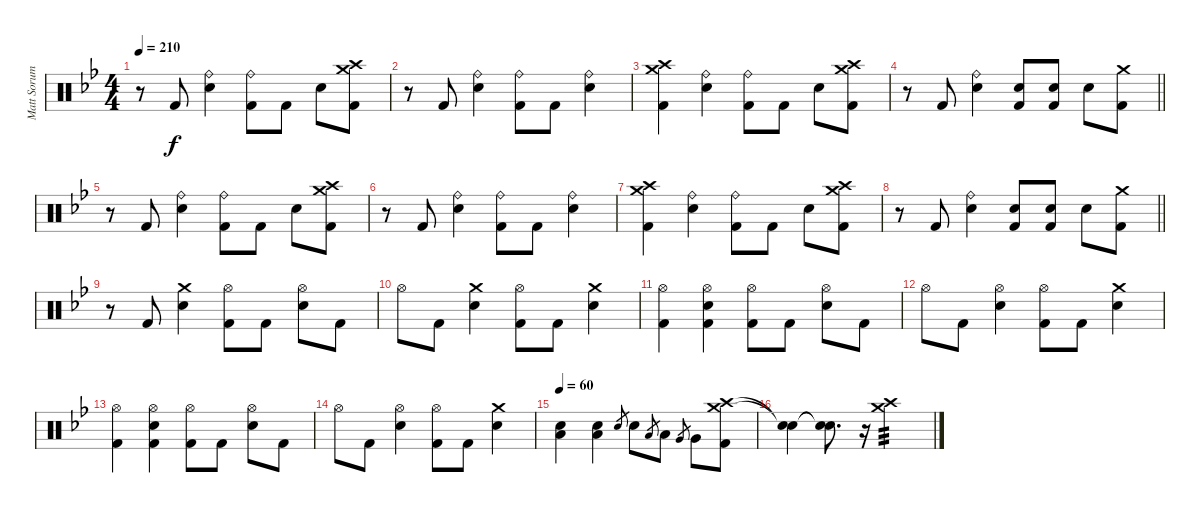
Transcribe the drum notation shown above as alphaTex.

\track ("Matt Sorum - Drums" "Matt Sorum") {instrument percussion}
\staff {score}
\articulation defaults
\ts (4 4)
\tempo 210
\clef neutral
\ks bb
r.8{dy f} "Kick (hit) 2".8 ("Ride (bell)" "Snare (hit) 2").4 ("Ride (bell)" "Kick (hit) 2").8 "Kick (hit) 2".8 "Snare (hit) 2".8 ("Crash medium (hit)" "Crash high (hit)" "Kick (hit) 2").8 |
r.8 "Kick (hit) 2".8 ("Ride (bell)" "Snare (hit) 2").4 ("Ride (bell)" "Kick (hit) 2").8 "Kick (hit) 2".8 ("Ride (bell)" "Snare (hit) 2").4 |
("Crash medium (hit)" "Crash high (hit)" "Kick (hit) 2").4 ("Ride (bell)" "Snare (hit) 2").4 ("Ride (bell)" "Kick (hit) 2").8 "Kick (hit) 2".8 "Snare (hit) 2".8 ("Crash medium (hit)" "Crash high (hit)" "Kick (hit) 2").8 |
\barLineRight lightlight
r.8 "Kick (hit) 2".8 ("Ride (bell)" "Snare (hit) 2").4 ("Snare (hit) 2" "Kick (hit) 2").8 ("Snare (hit) 2" "Kick (hit) 2").8 "Snare (hit) 2".8 ("Crash medium (hit)" "Kick (hit) 2").8 |
r.8 "Kick (hit) 2".8 ("Ride (bell)" "Snare (hit) 2").4 ("Ride (bell)" "Kick (hit) 2").8 "Kick (hit) 2".8 "Snare (hit) 2".8 ("Crash medium (hit)" "Crash high (hit)" "Kick (hit) 2").8 |
r.8 "Kick (hit) 2".8 ("Ride (bell)" "Snare (hit) 2").4 ("Ride (bell)" "Kick (hit) 2").8 "Kick (hit) 2".8 ("Ride (bell)" "Snare (hit) 2").4 |
("Crash medium (hit)" "Crash high (hit)" "Kick (hit) 2").4 ("Ride (bell)" "Snare (hit) 2").4 ("Ride (bell)" "Kick (hit) 2").8 "Kick (hit) 2".8 "Snare (hit) 2".8 ("Crash medium (hit)" "Crash high (hit)" "Kick (hit) 2").8 |
\barLineRight lightlight
r.8 "Kick (hit) 2".8 ("Ride (bell)" "Snare (hit) 2").4 ("Snare (hit) 2" "Kick (hit) 2").8 ("Snare (hit) 2" "Kick (hit) 2").8 "Snare (hit) 2".8 ("Crash medium (hit)" "Kick (hit) 2").8 |
r.8 "Kick (hit) 2".8 ("Crash medium (hit)" "Snare (hit) 2").4 ("Hi-Hat (open)" "Kick (hit) 2").8 "Kick (hit) 2".8 ("Hi-Hat (open)" "Snare (hit) 2").8 "Kick (hit) 2".8 |
"Hi-Hat (open)".8 "Kick (hit) 2".8 ("Crash medium (hit)" "Snare (hit) 2").4 ("Hi-Hat (open)" "Kick (hit) 2").8 "Kick (hit) 2".8 ("Crash medium (hit)" "Snare (hit) 2").4 |
("Hi-Hat (open)" "Kick (hit) 2").4 ("Hi-Hat (open)" "Snare (hit) 2" "Kick (hit) 2").4 ("Hi-Hat (open)" "Kick (hit) 2").8 "Kick (hit) 2".8 ("Hi-Hat (open)" "Snare (hit) 2").8 "Kick (hit) 2".8 |
"Hi-Hat (open)".8 "Kick (hit) 2".8 ("Hi-Hat (open)" "Snare (hit) 2").4 ("Hi-Hat (open)" "Kick (hit) 2").8 "Kick (hit) 2".8 ("Crash medium (hit)" "Snare (hit) 2").4 |
("Hi-Hat (open)" "Kick (hit) 2").4 ("Hi-Hat (open)" "Snare (hit) 2" "Kick (hit) 2").4 ("Hi-Hat (open)" "Kick (hit) 2").8 "Kick (hit) 2".8 ("Hi-Hat (open)" "Snare (hit) 2").8 "Kick (hit) 2".8 |
"Hi-Hat (open)".8 "Kick (hit) 2".8 ("Hi-Hat (open)" "Snare (hit) 2").4 ("Hi-Hat (open)" "Kick (hit) 2").8 "Kick (hit) 2".8 ("Crash medium (hit)" "Snare (hit) 2").4 |
\tempo 60
("Low Tom (hit)" "Snare (hit) 2").4 ("Low Tom (hit)" "Snare (hit) 2").4 "Snare (hit) 2".8{gr} "Snare (hit) 2".8 "Low Tom (hit)".8{gr} "Low Tom (hit)".8 "Very Low Tom (hit)".8{gr} "Very Low Tom (hit)".8 ("Crash medium (hit)" "Crash high (hit)" "Kick (hit) 2").8 |
("Snare (hit)"{t} "Snare (hit)"{t}).4 ("Snare (hit)"{t} "Snare (hit)"{t}).8{d} r.16{volume 0} ("Crash high (hit)" "Crash medium (hit)").2{tp 3 volume 16}
